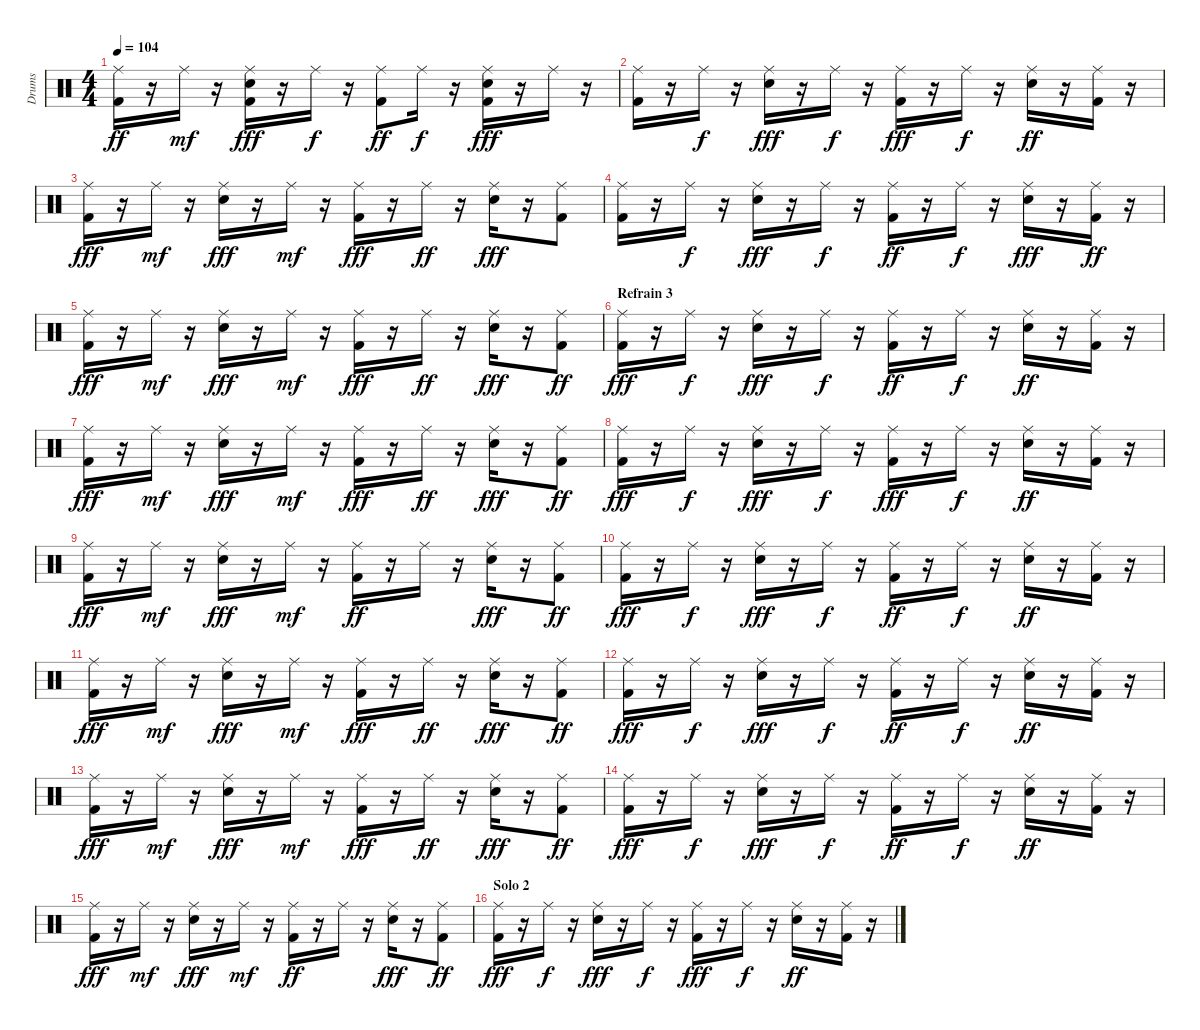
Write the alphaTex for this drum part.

\track ("Drums" "Drums") {instrument percussion}
\staff {score}
\articulation defaults
\ts (4 4)
\tempo 104
\clef neutral
\ks c
("Kick (hit) 2" "Ride (middle)").16{dy ff} r.16 "Ride (middle)".16{dy mf} r.16 ("Snare (hit) 2" "Ride (middle)" "Kick (hit) 2").16{dy fff} r.16 "Ride (middle)".16{dy f} r.16 ("Kick (hit) 2" "Ride (middle)").8{dy ff} "Ride (middle)".16{dy f} r.16 ("Kick (hit) 2" "Ride (middle)" "Snare (hit) 2").16{dy fff} r.16 "Ride (middle)".16 r.16 |
("Ride (middle)" "Kick (hit) 2").16 r.16 "Ride (middle)".16{dy f} r.16 ("Ride (middle)" "Snare (hit) 2").16{dy fff} r.16 "Ride (middle)".16{dy f} r.16 ("Ride (middle)" "Kick (hit) 2").16{dy fff} r.16 "Ride (middle)".16{dy f} r.16 ("Snare (hit) 2" "Ride (middle)").16{dy ff} r.16 ("Ride (middle)" "Kick (hit) 2").16 r.16 |
("Kick (hit) 2" "Ride (middle)").16{dy fff} r.16 "Ride (middle)".16{dy mf} r.16 ("Snare (hit) 2" "Ride (middle)").16{dy fff} r.16 "Ride (middle)".16{dy mf} r.16 ("Ride (middle)" "Kick (hit) 2").16{dy fff} r.16 "Ride (middle)".16{dy ff} r.16 ("Ride (middle)" "Snare (hit) 2").16{dy fff} r.16 ("Kick (hit) 2" "Ride (middle)").8 |
("Kick (hit) 2" "Ride (middle)").16 r.16 "Ride (middle)".16{dy f} r.16 ("Ride (middle)" "Snare (hit) 2").16{dy fff} r.16 "Ride (middle)".16{dy f} r.16 ("Kick (hit) 2" "Ride (middle)").16{dy ff} r.16 "Ride (middle)".16{dy f} r.16 ("Ride (middle)" "Snare (hit) 2").16{dy fff} r.16 ("Kick (hit) 2" "Ride (middle)").16{dy ff} r.16 |
("Ride (middle)" "Kick (hit) 2").16{dy fff} r.16 "Ride (middle)".16{dy mf} r.16 ("Ride (middle)" "Snare (hit) 2").16{dy fff} r.16 "Ride (middle)".16{dy mf} r.16 ("Ride (middle)" "Kick (hit) 2").16{dy fff} r.16 "Ride (middle)".16{dy ff} r.16 ("Snare (hit) 2" "Ride (middle)").16{dy fff} r.16 ("Ride (middle)" "Kick (hit) 2").8{dy ff} |
\section ("" "Refrain 3")
("Kick (hit) 2" "Ride (middle)").16{dy fff} r.16 "Ride (middle)".16{dy f} r.16 ("Snare (hit) 2" "Ride (middle)").16{dy fff} r.16 "Ride (middle)".16{dy f} r.16 ("Kick (hit) 2" "Ride (middle)").16{dy ff} r.16 "Ride (middle)".16{dy f} r.16 ("Snare (hit) 2" "Ride (middle)").16{dy ff} r.16 ("Ride (middle)" "Kick (hit) 2").16 r.16 |
("Kick (hit) 2" "Ride (middle)").16{dy fff} r.16 "Ride (middle)".16{dy mf} r.16 ("Snare (hit) 2" "Ride (middle)").16{dy fff} r.16 "Ride (middle)".16{dy mf} r.16 ("Ride (middle)" "Kick (hit) 2").16{dy fff} r.16 "Ride (middle)".16{dy ff} r.16 ("Ride (middle)" "Snare (hit) 2").16{dy fff} r.16 ("Ride (middle)" "Kick (hit) 2").8{dy ff} |
("Kick (hit) 2" "Ride (middle)").16{dy fff} r.16 "Ride (middle)".16{dy f} r.16 ("Ride (middle)" "Snare (hit) 2").16{dy fff} r.16 "Ride (middle)".16{dy f} r.16 ("Ride (middle)" "Kick (hit) 2").16{dy fff} r.16 "Ride (middle)".16{dy f} r.16 ("Snare (hit) 2" "Ride (middle)").16{dy ff} r.16 ("Kick (hit) 2" "Ride (middle)").16 r.16 |
("Ride (middle)" "Kick (hit) 2").16{dy fff} r.16 "Ride (middle)".16{dy mf} r.16 ("Ride (middle)" "Snare (hit) 2").16{dy fff} r.16 "Ride (middle)".16{dy mf} r.16 ("Kick (hit) 2" "Ride (middle)").16{dy ff} r.16 "Ride (middle)".16 r.16 ("Snare (hit) 2" "Ride (middle)").16{dy fff} r.16 ("Ride (middle)" "Kick (hit) 2").8{dy ff} |
("Kick (hit) 2" "Ride (middle)").16{dy fff} r.16 "Ride (middle)".16{dy f} r.16 ("Snare (hit) 2" "Ride (middle)").16{dy fff} r.16 "Ride (middle)".16{dy f} r.16 ("Kick (hit) 2" "Ride (middle)").16{dy ff} r.16 "Ride (middle)".16{dy f} r.16 ("Snare (hit) 2" "Ride (middle)").16{dy ff} r.16 ("Ride (middle)" "Kick (hit) 2").16 r.16 |
("Kick (hit) 2" "Ride (middle)").16{dy fff} r.16 "Ride (middle)".16{dy mf} r.16 ("Ride (middle)" "Snare (hit) 2").16{dy fff} r.16 "Ride (middle)".16{dy mf} r.16 ("Ride (middle)" "Kick (hit) 2").16{dy fff} r.16 "Ride (middle)".16{dy ff} r.16 ("Ride (middle)" "Snare (hit) 2").16{dy fff} r.16 ("Ride (middle)" "Kick (hit) 2").8{dy ff} |
("Ride (middle)" "Kick (hit) 2").16{dy fff} r.16 "Ride (middle)".16{dy f} r.16 ("Snare (hit) 2" "Ride (middle)").16{dy fff} r.16 "Ride (middle)".16{dy f} r.16 ("Kick (hit) 2" "Ride (middle)").16{dy ff} r.16 "Ride (middle)".16{dy f} r.16 ("Snare (hit) 2" "Ride (middle)").16{dy ff} r.16 ("Ride (middle)" "Kick (hit) 2").16 r.16 |
("Kick (hit) 2" "Ride (middle)").16{dy fff} r.16 "Ride (middle)".16{dy mf} r.16 ("Snare (hit) 2" "Ride (middle)").16{dy fff} r.16 "Ride (middle)".16{dy mf} r.16 ("Ride (middle)" "Kick (hit) 2").16{dy fff} r.16 "Ride (middle)".16{dy ff} r.16 ("Ride (middle)" "Snare (hit) 2").16{dy fff} r.16 ("Ride (middle)" "Kick (hit) 2").8{dy ff} |
("Ride (middle)" "Kick (hit) 2").16{dy fff} r.16 "Ride (middle)".16{dy f} r.16 ("Snare (hit) 2" "Ride (middle)").16{dy fff} r.16 "Ride (middle)".16{dy f} r.16 ("Kick (hit) 2" "Ride (middle)").16{dy ff} r.16 "Ride (middle)".16{dy f} r.16 ("Snare (hit) 2" "Ride (middle)").16{dy ff} r.16 ("Ride (middle)" "Kick (hit) 2").16 r.16 |
("Kick (hit) 2" "Ride (middle)").16{dy fff} r.16 "Ride (middle)".16{dy mf} r.16 ("Ride (middle)" "Snare (hit) 2").16{dy fff} r.16 "Ride (middle)".16{dy mf} r.16 ("Kick (hit) 2" "Ride (middle)").16{dy ff} r.16 "Ride (middle)".16 r.16 ("Ride (middle)" "Snare (hit) 2").16{dy fff} r.16 ("Ride (middle)" "Kick (hit) 2").8{dy ff} |
\section ("" "Solo 2 ")
("Kick (hit) 2" "Ride (middle)").16{dy fff} r.16 "Ride (middle)".16{dy f} r.16 ("Ride (middle)" "Snare (hit) 2").16{dy fff} r.16 "Ride (middle)".16{dy f} r.16 ("Ride (middle)" "Kick (hit) 2").16{dy fff} r.16 "Ride (middle)".16{dy f} r.16 ("Snare (hit) 2" "Ride (middle)").16{dy ff} r.16 ("Kick (hit) 2" "Ride (middle)").16 r.16
